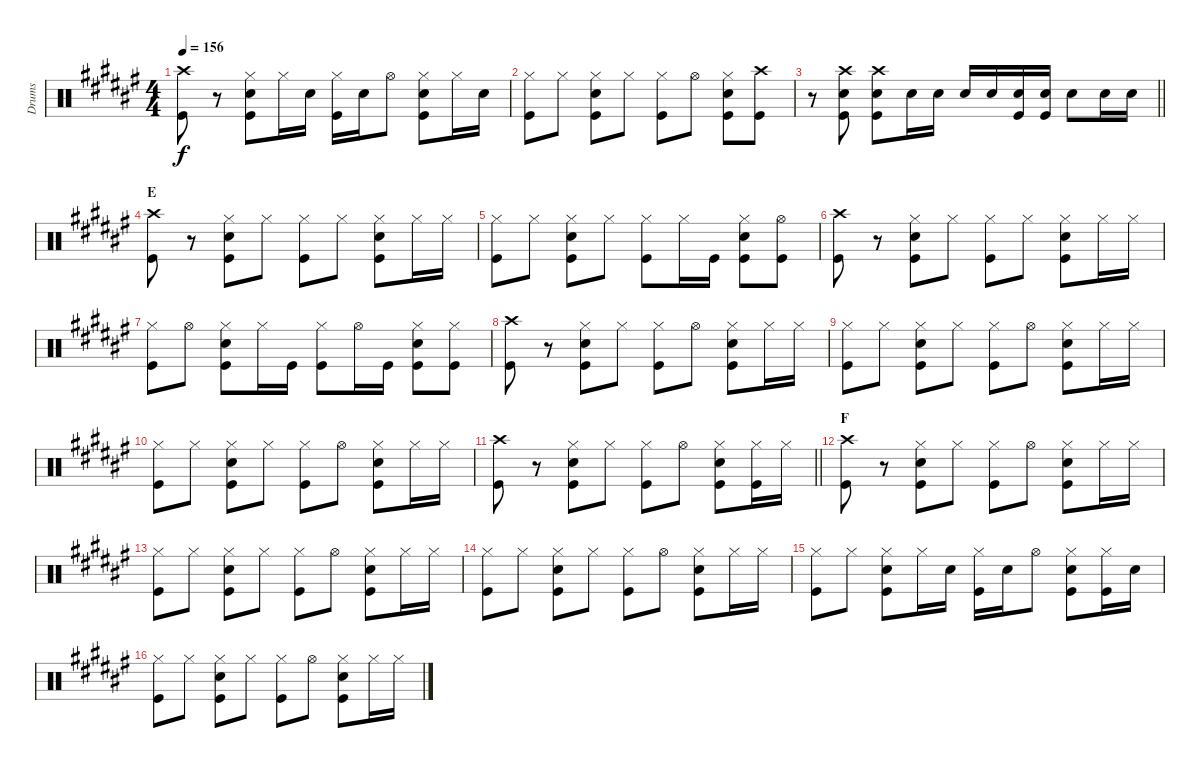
\track ("Drums" "Drums") {instrument percussion}
\staff {score}
\articulation defaults
\ts (4 4)
\tempo 156
\clef neutral
\ks f#
("Crash high (hit)" "Kick (hit)").8{dy f} r.8 ("Hi-Hat (closed)" "Snare (hit) 2" "Kick (hit)").8 "Hi-Hat (closed)".16 "Snare (hit) 2".16 ("Hi-Hat (closed)" "Kick (hit)").16 "Snare (hit) 2".16 "Hi-Hat (open)".8 ("Hi-Hat (closed)" "Snare (hit) 2" "Kick (hit)").8 "Hi-Hat (closed)".16 "Snare (hit) 2".16 |
("Hi-Hat (closed)" "Kick (hit)").8 "Hi-Hat (closed)".8 ("Hi-Hat (closed)" "Snare (hit) 2" "Kick (hit)").8 "Hi-Hat (closed)".8 ("Hi-Hat (closed)" "Kick (hit)").8 "Hi-Hat (open)".8 ("Hi-Hat (closed)" "Snare (hit) 2" "Kick (hit)").8 ("Crash high (hit)" "Kick (hit)").8 |
\barLineRight lightlight
r.8 ("Crash high (hit)" "Snare (hit) 2" "Kick (hit)").8 ("Crash high (hit)" "Snare (hit) 2" "Kick (hit)").8 "Snare (hit) 2".16 "Snare (hit) 2".16 "Snare (hit) 2".16 "Snare (hit) 2".16 ("Snare (hit) 2" "Kick (hit)").16 ("Snare (hit) 2" "Kick (hit)").16 "Snare (hit) 2".8 "Snare (hit) 2".16 "Snare (hit) 2".16 |
\section ("" "E")
("Crash high (hit)" "Kick (hit)").8 r.8 ("Hi-Hat (closed)" "Snare (hit) 2" "Kick (hit)").8 "Hi-Hat (closed)".8 ("Hi-Hat (closed)" "Kick (hit)").8 "Hi-Hat (closed)".8 ("Hi-Hat (closed)" "Snare (hit) 2" "Kick (hit)").8 "Hi-Hat (closed)".16 "Hi-Hat (closed)".16 |
("Hi-Hat (closed)" "Kick (hit)").8 "Hi-Hat (closed)".8 ("Hi-Hat (closed)" "Snare (hit) 2" "Kick (hit)").8 "Hi-Hat (closed)".8 ("Hi-Hat (closed)" "Kick (hit)").8 "Hi-Hat (closed)".16 "Kick (hit)".16 ("Hi-Hat (closed)" "Snare (hit) 2" "Kick (hit)").8 ("Hi-Hat (open)" "Kick (hit)").8 |
("Crash high (hit)" "Kick (hit)").8 r.8 ("Hi-Hat (closed)" "Snare (hit) 2" "Kick (hit)").8 "Hi-Hat (closed)".8 ("Hi-Hat (closed)" "Kick (hit)").8 "Hi-Hat (closed)".8 ("Hi-Hat (closed)" "Snare (hit) 2" "Kick (hit)").8 "Hi-Hat (closed)".16 "Hi-Hat (closed)".16 |
("Hi-Hat (closed)" "Kick (hit)").8 "Hi-Hat (open)".8 ("Hi-Hat (closed)" "Snare (hit) 2" "Kick (hit)").8 "Hi-Hat (closed)".16 "Kick (hit)".16 ("Hi-Hat (closed)" "Kick (hit)").8 "Hi-Hat (open)".16 "Kick (hit)".16 ("Hi-Hat (closed)" "Snare (hit) 2" "Kick (hit)").8 ("Hi-Hat (closed)" "Kick (hit)").8 |
("Crash high (hit)" "Kick (hit)").8 r.8 ("Hi-Hat (closed)" "Snare (hit) 2" "Kick (hit)").8 "Hi-Hat (closed)".8 ("Hi-Hat (closed)" "Kick (hit)").8 "Hi-Hat (open)".8 ("Hi-Hat (closed)" "Snare (hit) 2" "Kick (hit)").8 "Hi-Hat (closed)".16 "Hi-Hat (closed)".16 |
("Hi-Hat (closed)" "Kick (hit)").8 "Hi-Hat (closed)".8 ("Hi-Hat (closed)" "Snare (hit) 2" "Kick (hit)").8 "Hi-Hat (closed)".8 ("Hi-Hat (closed)" "Kick (hit)").8 "Hi-Hat (open)".8 ("Hi-Hat (closed)" "Snare (hit) 2" "Kick (hit)").8 "Hi-Hat (closed)".16 "Hi-Hat (closed)".16 |
("Hi-Hat (closed)" "Kick (hit)").8 "Hi-Hat (closed)".8 ("Hi-Hat (closed)" "Snare (hit) 2" "Kick (hit)").8 "Hi-Hat (closed)".8 ("Hi-Hat (closed)" "Kick (hit)").8 "Hi-Hat (open)".8 ("Hi-Hat (closed)" "Snare (hit) 2" "Kick (hit)").8 "Hi-Hat (closed)".16 "Hi-Hat (closed)".16 |
\barLineRight lightlight
("Crash high (hit)" "Kick (hit)").8 r.8 ("Hi-Hat (closed)" "Snare (hit) 2" "Kick (hit)").8 "Hi-Hat (closed)".8 ("Hi-Hat (closed)" "Kick (hit)").8 "Hi-Hat (open)".8 ("Hi-Hat (closed)" "Snare (hit) 2" "Kick (hit)").8 ("Hi-Hat (closed)" "Kick (hit)").16 "Hi-Hat (closed)".16 |
\section ("" "F")
("Crash high (hit)" "Kick (hit)").8 r.8 ("Hi-Hat (closed)" "Snare (hit) 2" "Kick (hit)").8 "Hi-Hat (closed)".8 ("Hi-Hat (closed)" "Kick (hit)").8 "Hi-Hat (open)".8 ("Hi-Hat (closed)" "Snare (hit) 2" "Kick (hit)").8 "Hi-Hat (closed)".16 "Hi-Hat (closed)".16 |
("Hi-Hat (closed)" "Kick (hit)").8 "Hi-Hat (closed)".8 ("Hi-Hat (closed)" "Snare (hit) 2" "Kick (hit)").8 "Hi-Hat (closed)".8 ("Hi-Hat (closed)" "Kick (hit)").8 "Hi-Hat (open)".8 ("Hi-Hat (closed)" "Snare (hit) 2" "Kick (hit)").8 "Hi-Hat (closed)".16 "Hi-Hat (closed)".16 |
("Hi-Hat (closed)" "Kick (hit)").8 "Hi-Hat (closed)".8 ("Hi-Hat (closed)" "Snare (hit) 2" "Kick (hit)").8 "Hi-Hat (closed)".8 ("Hi-Hat (closed)" "Kick (hit)").8 "Hi-Hat (open)".8 ("Hi-Hat (closed)" "Snare (hit) 2" "Kick (hit)").8 "Hi-Hat (closed)".16 "Hi-Hat (closed)".16 |
("Hi-Hat (closed)" "Kick (hit)").8 "Hi-Hat (closed)".8 ("Hi-Hat (closed)" "Snare (hit) 2" "Kick (hit)").8 "Hi-Hat (closed)".16 "Snare (hit) 2".16 ("Hi-Hat (closed)" "Kick (hit)").16 "Snare (hit) 2".16 "Hi-Hat (open)".8 ("Hi-Hat (closed)" "Snare (hit) 2" "Kick (hit)").8 ("Hi-Hat (closed)" "Kick (hit)").16 "Snare (hit) 2".16 |
("Hi-Hat (closed)" "Kick (hit)").8 "Hi-Hat (closed)".8 ("Hi-Hat (closed)" "Snare (hit) 2" "Kick (hit)").8 "Hi-Hat (closed)".8 ("Hi-Hat (closed)" "Kick (hit)").8 "Hi-Hat (open)".8 ("Hi-Hat (closed)" "Snare (hit) 2" "Kick (hit)").8 "Hi-Hat (closed)".16 "Hi-Hat (closed)".16
